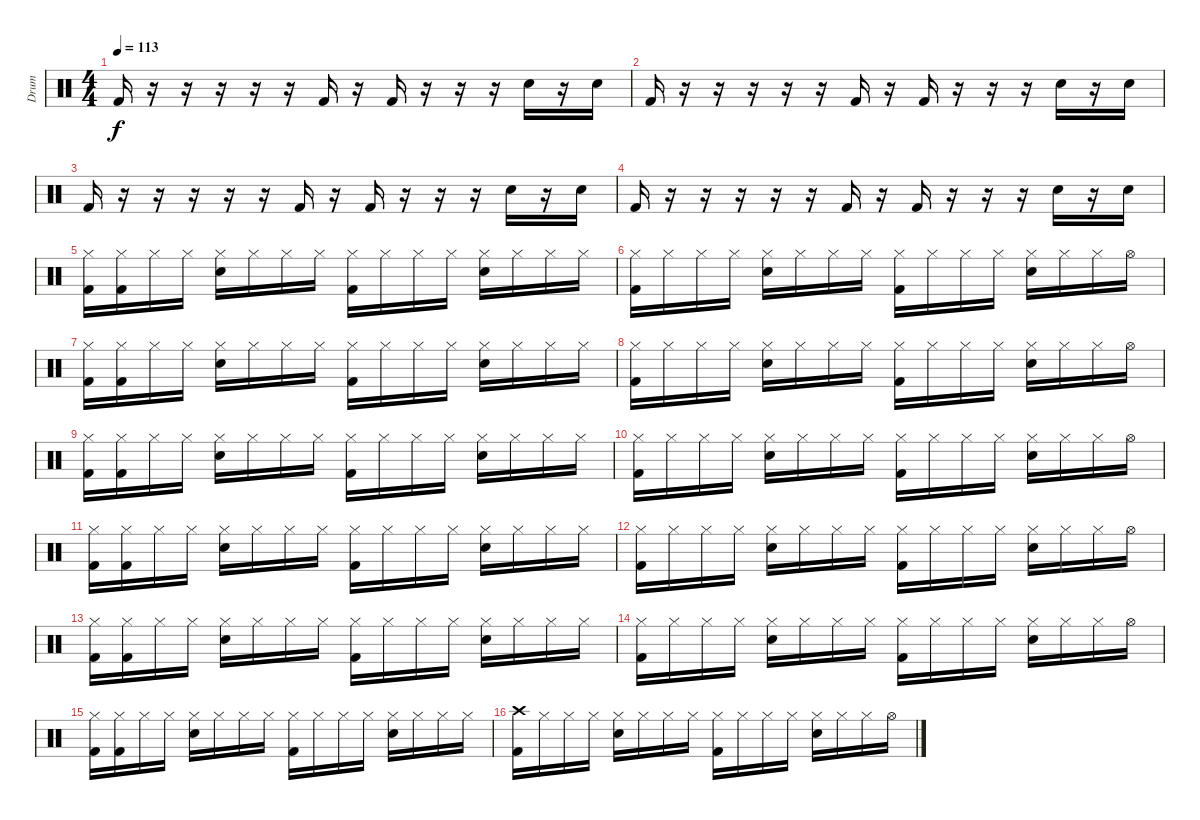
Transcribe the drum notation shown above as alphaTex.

\track ("Drum" "Drum") {instrument percussion}
\staff {score}
\articulation defaults
\ts (4 4)
\tempo 113
\clef neutral
\ks c "Kick (hit) 2".16{dy f}
r.16 r.16 r.16 r.16 r.16 "Kick (hit) 2".16 r.16 "Kick (hit) 2".16 r.16 r.16 r.16 "Hand Clap (hit)".16 r.16 "Hand Clap (hit)".16 |
"Kick (hit) 2".16 r.16 r.16 r.16 r.16 r.16 "Kick (hit) 2".16 r.16 "Kick (hit) 2".16 r.16 r.16 r.16 "Hand Clap (hit)".16 r.16 "Hand Clap (hit)".16 |
"Kick (hit) 2".16 r.16 r.16 r.16 r.16 r.16 "Kick (hit) 2".16 r.16 "Kick (hit) 2".16 r.16 r.16 r.16 "Hand Clap (hit)".16 r.16 "Hand Clap (hit)".16 |
"Kick (hit) 2".16 r.16 r.16 r.16 r.16 r.16 "Kick (hit) 2".16 r.16 "Kick (hit) 2".16 r.16 r.16 r.16 "Hand Clap (hit)".16 r.16 "Hand Clap (hit)".16 |
("Hi-Hat (closed)" "Kick (hit) 2").16 ("Hi-Hat (closed)" "Kick (hit) 2").16 "Hi-Hat (closed)".16 "Hi-Hat (closed)".16 ("Hi-Hat (closed)" "Snare (hit) 2").16 "Hi-Hat (closed)".16 "Hi-Hat (closed)".16 "Hi-Hat (closed)".16 ("Hi-Hat (closed)" "Kick (hit) 2").16 "Hi-Hat (closed)".16 "Hi-Hat (closed)".16 "Hi-Hat (closed)".16 ("Hi-Hat (closed)" "Snare (hit) 2").16 "Hi-Hat (closed)".16 "Hi-Hat (closed)".16 "Hi-Hat (closed)".16 |
("Hi-Hat (closed)" "Kick (hit) 2").16 "Hi-Hat (closed)".16 "Hi-Hat (closed)".16 "Hi-Hat (closed)".16 ("Hi-Hat (closed)" "Snare (hit) 2").16 "Hi-Hat (closed)".16 "Hi-Hat (closed)".16 "Hi-Hat (closed)".16 ("Hi-Hat (closed)" "Kick (hit) 2").16 "Hi-Hat (closed)".16 "Hi-Hat (closed)".16 "Hi-Hat (closed)".16 ("Hi-Hat (closed)" "Snare (hit) 2").16 "Hi-Hat (closed)".16 "Hi-Hat (closed)".16 "Hi-Hat (open)".16 |
("Hi-Hat (closed)" "Kick (hit) 2").16 ("Hi-Hat (closed)" "Kick (hit) 2").16 "Hi-Hat (closed)".16 "Hi-Hat (closed)".16 ("Hi-Hat (closed)" "Snare (hit) 2").16 "Hi-Hat (closed)".16 "Hi-Hat (closed)".16 "Hi-Hat (closed)".16 ("Hi-Hat (closed)" "Kick (hit) 2").16 "Hi-Hat (closed)".16 "Hi-Hat (closed)".16 "Hi-Hat (closed)".16 ("Hi-Hat (closed)" "Snare (hit) 2").16 "Hi-Hat (closed)".16 "Hi-Hat (closed)".16 "Hi-Hat (closed)".16 |
("Hi-Hat (closed)" "Kick (hit) 2").16 "Hi-Hat (closed)".16 "Hi-Hat (closed)".16 "Hi-Hat (closed)".16 ("Hi-Hat (closed)" "Snare (hit) 2").16 "Hi-Hat (closed)".16 "Hi-Hat (closed)".16 "Hi-Hat (closed)".16 ("Hi-Hat (closed)" "Kick (hit) 2").16 "Hi-Hat (closed)".16 "Hi-Hat (closed)".16 "Hi-Hat (closed)".16 ("Hi-Hat (closed)" "Snare (hit) 2").16 "Hi-Hat (closed)".16 "Hi-Hat (closed)".16 "Hi-Hat (open)".16 |
("Hi-Hat (closed)" "Kick (hit) 2").16 ("Hi-Hat (closed)" "Kick (hit) 2").16 "Hi-Hat (closed)".16 "Hi-Hat (closed)".16 ("Hi-Hat (closed)" "Snare (hit) 2").16 "Hi-Hat (closed)".16 "Hi-Hat (closed)".16 "Hi-Hat (closed)".16 ("Hi-Hat (closed)" "Kick (hit) 2").16 "Hi-Hat (closed)".16 "Hi-Hat (closed)".16 "Hi-Hat (closed)".16 ("Hi-Hat (closed)" "Snare (hit) 2").16 "Hi-Hat (closed)".16 "Hi-Hat (closed)".16 "Hi-Hat (closed)".16 |
("Hi-Hat (closed)" "Kick (hit) 2").16 "Hi-Hat (closed)".16 "Hi-Hat (closed)".16 "Hi-Hat (closed)".16 ("Hi-Hat (closed)" "Snare (hit) 2").16 "Hi-Hat (closed)".16 "Hi-Hat (closed)".16 "Hi-Hat (closed)".16 ("Hi-Hat (closed)" "Kick (hit) 2").16 "Hi-Hat (closed)".16 "Hi-Hat (closed)".16 "Hi-Hat (closed)".16 ("Hi-Hat (closed)" "Snare (hit) 2").16 "Hi-Hat (closed)".16 "Hi-Hat (closed)".16 "Hi-Hat (open)".16 |
("Hi-Hat (closed)" "Kick (hit) 2").16 ("Hi-Hat (closed)" "Kick (hit) 2").16 "Hi-Hat (closed)".16 "Hi-Hat (closed)".16 ("Hi-Hat (closed)" "Snare (hit) 2").16 "Hi-Hat (closed)".16 "Hi-Hat (closed)".16 "Hi-Hat (closed)".16 ("Hi-Hat (closed)" "Kick (hit) 2").16 "Hi-Hat (closed)".16 "Hi-Hat (closed)".16 "Hi-Hat (closed)".16 ("Hi-Hat (closed)" "Snare (hit) 2").16 "Hi-Hat (closed)".16 "Hi-Hat (closed)".16 "Hi-Hat (closed)".16 |
("Hi-Hat (closed)" "Kick (hit) 2").16 "Hi-Hat (closed)".16 "Hi-Hat (closed)".16 "Hi-Hat (closed)".16 ("Hi-Hat (closed)" "Snare (hit) 2").16 "Hi-Hat (closed)".16 "Hi-Hat (closed)".16 "Hi-Hat (closed)".16 ("Hi-Hat (closed)" "Kick (hit) 2").16 "Hi-Hat (closed)".16 "Hi-Hat (closed)".16 "Hi-Hat (closed)".16 ("Hi-Hat (closed)" "Snare (hit) 2").16 "Hi-Hat (closed)".16 "Hi-Hat (closed)".16 "Hi-Hat (open)".16 |
("Hi-Hat (closed)" "Kick (hit) 2").16 ("Hi-Hat (closed)" "Kick (hit) 2").16 "Hi-Hat (closed)".16 "Hi-Hat (closed)".16 ("Hi-Hat (closed)" "Snare (hit) 2").16 "Hi-Hat (closed)".16 "Hi-Hat (closed)".16 "Hi-Hat (closed)".16 ("Hi-Hat (closed)" "Kick (hit) 2").16 "Hi-Hat (closed)".16 "Hi-Hat (closed)".16 "Hi-Hat (closed)".16 ("Hi-Hat (closed)" "Snare (hit) 2").16 "Hi-Hat (closed)".16 "Hi-Hat (closed)".16 "Hi-Hat (closed)".16 |
("Hi-Hat (closed)" "Kick (hit) 2").16 "Hi-Hat (closed)".16 "Hi-Hat (closed)".16 "Hi-Hat (closed)".16 ("Hi-Hat (closed)" "Snare (hit) 2").16 "Hi-Hat (closed)".16 "Hi-Hat (closed)".16 "Hi-Hat (closed)".16 ("Hi-Hat (closed)" "Kick (hit) 2").16 "Hi-Hat (closed)".16 "Hi-Hat (closed)".16 "Hi-Hat (closed)".16 ("Hi-Hat (closed)" "Snare (hit) 2").16 "Hi-Hat (closed)".16 "Hi-Hat (closed)".16 "Hi-Hat (open)".16 |
("Hi-Hat (closed)" "Kick (hit) 2").16 ("Hi-Hat (closed)" "Kick (hit) 2").16 "Hi-Hat (closed)".16 "Hi-Hat (closed)".16 ("Hi-Hat (closed)" "Snare (hit) 2").16 "Hi-Hat (closed)".16 "Hi-Hat (closed)".16 "Hi-Hat (closed)".16 ("Hi-Hat (closed)" "Kick (hit) 2").16 "Hi-Hat (closed)".16 "Hi-Hat (closed)".16 "Hi-Hat (closed)".16 ("Hi-Hat (closed)" "Snare (hit) 2").16 "Hi-Hat (closed)".16 "Hi-Hat (closed)".16 "Hi-Hat (closed)".16 |
("Crash high (hit)" "Kick (hit) 2").16 "Hi-Hat (closed)".16 "Hi-Hat (closed)".16 "Hi-Hat (closed)".16 ("Hi-Hat (closed)" "Snare (hit) 2").16 "Hi-Hat (closed)".16 "Hi-Hat (closed)".16 "Hi-Hat (closed)".16 ("Hi-Hat (closed)" "Kick (hit) 2").16 "Hi-Hat (closed)".16 "Hi-Hat (closed)".16 "Hi-Hat (closed)".16 ("Hi-Hat (closed)" "Snare (hit) 2").16 "Hi-Hat (closed)".16 "Hi-Hat (closed)".16 "Hi-Hat (open)".16
